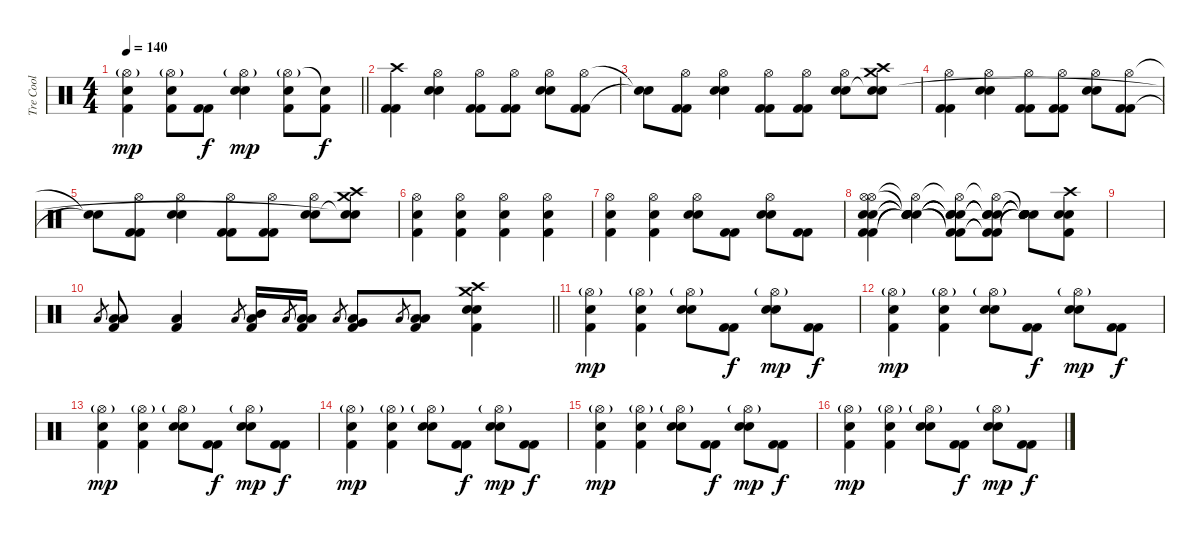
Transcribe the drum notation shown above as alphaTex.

\track ("Tre Cool" "Tre Cool") {instrument percussion}
\staff {score}
\articulation defaults
\ts (4 4)
\tempo 140
\clef neutral
\barLineRight lightlight
\ks c
("Hi-Hat (open)"{g} "Electric Snare (hit)" "Kick (hit) 2").4{dy mp} ("Hi-Hat (open)"{g} "Electric Snare (hit)" "Kick (hit) 2").8 ("Kick (hit) 2" "Kick (hit) 2").8{dy f} ("Hi-Hat (open)"{g} "Electric Snare (hit)" "Electric Snare (hit)").4{dy mp} ("Hi-Hat (open)"{g} "Electric Snare (hit)"{tr (38 64)} "Kick (hit) 2").8 ("Electric Snare (hit)"{t} "Kick (hit) 2").8{dy f} |
("Crash high (hit)" "Kick (hit) 2" "Kick (hit) 2").4 ("Hi-Hat (open)" "Electric Snare (hit)" "Electric Snare (hit)").4 ("Hi-Hat (open)" "Kick (hit) 2" "Kick (hit) 2").8 ("Hi-Hat (open)" "Kick (hit) 2" "Kick (hit) 2").8 ("Hi-Hat (open)" "Electric Snare (hit)" "Electric Snare (hit)").8 ("Hi-Hat (open)" "Kick (hit) 2" "Kick (hit) 2").8 |
("Snare (hit)"{t} "Snare (hit)"{t}).8 ("Hi-Hat (open)" "Kick (hit) 2" "Kick (hit) 2").8 ("Hi-Hat (open)" "Electric Snare (hit)" "Electric Snare (hit)").4 ("Hi-Hat (open)" "Kick (hit) 2" "Kick (hit) 2").8 ("Hi-Hat (open)" "Kick (hit) 2" "Kick (hit) 2").8 ("Hi-Hat (open)" "Electric Snare (hit)" "Electric Snare (hit)").8 ("Crash high (hit)" "Crash medium (hit)" "Snare (hit)"{t} "Snare (hit)").8 |
("Hi-Hat (open)" "Kick (hit) 2" "Kick (hit) 2").4 ("Hi-Hat (open)" "Electric Snare (hit)" "Electric Snare (hit)").4 ("Hi-Hat (open)" "Kick (hit) 2" "Kick (hit) 2").8 ("Hi-Hat (open)" "Kick (hit) 2" "Kick (hit) 2").8 ("Hi-Hat (open)" "Electric Snare (hit)" "Electric Snare (hit)").8 ("Hi-Hat (open)" "Kick (hit) 2" "Kick (hit) 2").8 |
("Snare (hit)"{t} "Snare (hit)"{t}).8 ("Hi-Hat (open)" "Kick (hit) 2" "Kick (hit) 2").8 ("Hi-Hat (open)" "Electric Snare (hit)" "Electric Snare (hit)").4 ("Hi-Hat (open)" "Kick (hit) 2" "Kick (hit) 2").8 ("Hi-Hat (open)" "Kick (hit) 2" "Kick (hit) 2").8 ("Hi-Hat (open)" "Electric Snare (hit)" "Electric Snare (hit)").8 ("Crash high (hit)" "Crash medium (hit)" "Snare (hit)"{t} "Snare (hit)"{t}).8 |
("Hi-Hat (open)" "Electric Snare (hit)" "Kick (hit) 2").4 ("Hi-Hat (open)" "Electric Snare (hit)" "Kick (hit) 2").4 ("Hi-Hat (open)" "Electric Snare (hit)" "Kick (hit) 2").4 ("Hi-Hat (open)" "Electric Snare (hit)" "Kick (hit) 2").4 |
("Hi-Hat (open)" "Electric Snare (hit)" "Kick (hit) 2").4 ("Hi-Hat (open)" "Electric Snare (hit)" "Kick (hit) 2").4 ("Hi-Hat (open)" "Electric Snare (hit)" "Electric Snare (hit)").8 ("Kick (hit) 2" "Kick (hit) 2").8 ("Hi-Hat (open)" "Electric Snare (hit)" "Electric Snare (hit)").8 ("Kick (hit) 2" "Kick (hit) 2").8 |
("Hi-Hat (open)" "Hi-Hat (open)" "Electric Snare (hit)" "Electric Snare (hit)" "Kick (hit) 2" "Kick (hit) 2").4 ("Hi-Hat (open)"{t} "Snare (hit)"{t} "Snare (hit)"{t} "Snare (hit)"{t} "Electric Snare (hit)"{t} "Electric Snare (hit)"{t}).4 ("Hi-Hat (open)"{t} "Snare (hit)"{t} "Snare (hit)"{t} "Snare (hit)"{t} "Kick (hit) 2"{t} "Kick (hit) 2"{t}).8 ("Hi-Hat (open)"{t} "Snare (hit)"{t} "Snare (hit)"{t} "Snare (hit)"{t} "Kick (hit) 2"{t} "Kick (hit) 2"{t}).8 ("Snare (hit)"{t} "Snare (hit)"{t} "Snare (hit)"{t} "Snare (hit)"{t} "Snare (hit)"{t} "Snare (hit)"{t}).8 ("Crash high (hit)" "Electric Snare (hit)" "Electric Snare (hit)" "Kick (hit) 2").8 |
|
\barLineRight lightlight "Low Tom (hit)".8{gr}
("Low Tom (hit)" "Low Tom (hit)" "Kick (hit) 2").8 ("Low Floor Tom (hit)" "Kick (hit) 2").4 "Low Tom (hit)".8{gr} ("Mid Tom (hit)" "Low Tom (hit)" "Kick (hit) 2").16 "Low Tom (hit)".8{gr} ("Low Tom (hit)" "Low Tom (hit)" "Kick (hit) 2").16 "Low Tom (hit)".8{gr} ("Very Low Tom (hit)" "Low Tom (hit)" "Kick (hit) 2").8 "Low Tom (hit)".8{gr} ("Low Floor Tom (hit)" "Low Tom (hit)" "Kick (hit) 2").8 ("Crash high (hit)" "Electric Snare (hit)" "Electric Snare (hit)" "Crash medium (hit)" "Kick (hit) 2").4 |
("Hi-Hat (open)"{g} "Electric Snare (hit)" "Kick (hit) 2").4{dy mp} ("Hi-Hat (open)"{g} "Electric Snare (hit)" "Kick (hit) 2").4 ("Hi-Hat (open)"{g} "Electric Snare (hit)" "Electric Snare (hit)").8 ("Kick (hit) 2" "Kick (hit) 2").8{dy f} ("Hi-Hat (open)"{g} "Electric Snare (hit)" "Electric Snare (hit)").8{dy mp} ("Kick (hit) 2" "Kick (hit) 2").8{dy f} |
("Hi-Hat (open)"{g} "Electric Snare (hit)" "Kick (hit) 2").4{dy mp} ("Hi-Hat (open)"{g} "Electric Snare (hit)" "Kick (hit) 2").4 ("Hi-Hat (open)"{g} "Electric Snare (hit)" "Electric Snare (hit)").8 ("Kick (hit) 2" "Kick (hit) 2").8{dy f} ("Hi-Hat (open)"{g} "Electric Snare (hit)" "Electric Snare (hit)").8{dy mp} ("Kick (hit) 2" "Kick (hit) 2").8{dy f} |
("Hi-Hat (open)"{g} "Electric Snare (hit)" "Kick (hit) 2").4{dy mp} ("Hi-Hat (open)"{g} "Electric Snare (hit)" "Kick (hit) 2").4 ("Hi-Hat (open)"{g} "Electric Snare (hit)" "Electric Snare (hit)").8 ("Kick (hit) 2" "Kick (hit) 2").8{dy f} ("Hi-Hat (open)"{g} "Electric Snare (hit)" "Electric Snare (hit)").8{dy mp} ("Kick (hit) 2" "Kick (hit) 2").8{dy f} |
("Hi-Hat (open)"{g} "Electric Snare (hit)" "Kick (hit) 2").4{dy mp} ("Hi-Hat (open)"{g} "Electric Snare (hit)" "Kick (hit) 2").4 ("Hi-Hat (open)"{g} "Electric Snare (hit)" "Electric Snare (hit)").8 ("Kick (hit) 2" "Kick (hit) 2").8{dy f} ("Hi-Hat (open)"{g} "Electric Snare (hit)" "Electric Snare (hit)").8{dy mp} ("Kick (hit) 2" "Kick (hit) 2").8{dy f} |
("Hi-Hat (open)"{g} "Electric Snare (hit)" "Kick (hit) 2").4{dy mp} ("Hi-Hat (open)"{g} "Electric Snare (hit)" "Kick (hit) 2").4 ("Hi-Hat (open)"{g} "Electric Snare (hit)" "Electric Snare (hit)").8 ("Kick (hit) 2" "Kick (hit) 2").8{dy f} ("Hi-Hat (open)"{g} "Electric Snare (hit)" "Electric Snare (hit)").8{dy mp} ("Kick (hit) 2" "Kick (hit) 2").8{dy f} |
("Hi-Hat (open)"{g} "Electric Snare (hit)" "Kick (hit) 2").4{dy mp} ("Hi-Hat (open)"{g} "Electric Snare (hit)" "Kick (hit) 2").4 ("Hi-Hat (open)"{g} "Electric Snare (hit)" "Electric Snare (hit)").8 ("Kick (hit) 2" "Kick (hit) 2").8{dy f} ("Hi-Hat (open)"{g} "Electric Snare (hit)" "Electric Snare (hit)").8{dy mp} ("Kick (hit) 2" "Kick (hit) 2").8{dy f}
